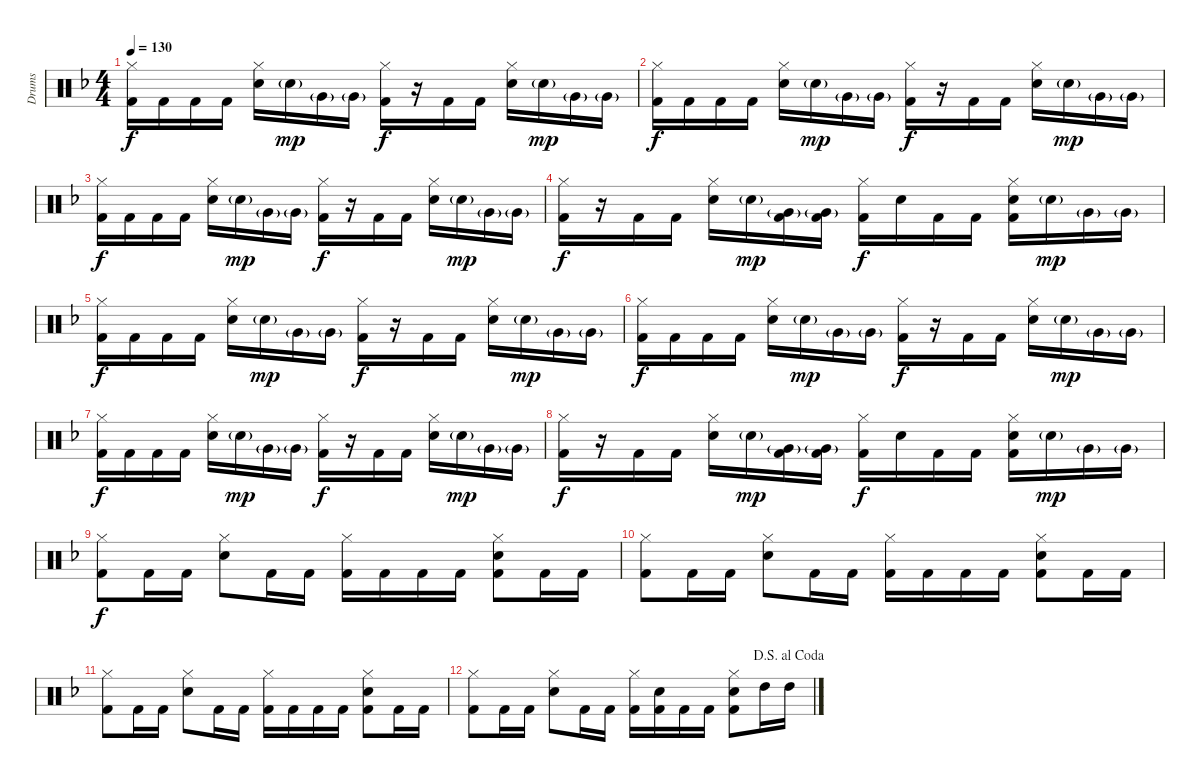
\track ("Drums" "Drums") {instrument percussion}
\staff {score}
\articulation defaults
\ts (4 4)
\tempo 130
\clef neutral
\ks f
("Hi-Hat (closed)" "Kick (hit) 2").16{dy f} "Kick (hit) 2".16 "Kick (hit) 2".16 "Kick (hit) 2".16 ("Hi-Hat (closed)" "Electric Snare (hit)").16 "Snare (hit) 2"{g}.16{dy mp} "Very Low Tom (hit)"{g}.16 "Very Low Tom (hit)"{g}.16 ("Hi-Hat (closed)" "Kick (hit) 2").16{dy f} r.16 "Kick (hit) 2".16 "Kick (hit) 2".16 ("Hi-Hat (closed)" "Electric Snare (hit)").16 "Snare (hit) 2"{g}.16{dy mp} "Very Low Tom (hit)"{g}.16 "Very Low Tom (hit)"{g}.16 |
("Hi-Hat (closed)" "Kick (hit) 2").16{dy f} "Kick (hit) 2".16 "Kick (hit) 2".16 "Kick (hit) 2".16 ("Hi-Hat (closed)" "Electric Snare (hit)").16 "Snare (hit) 2"{g}.16{dy mp} "Very Low Tom (hit)"{g}.16 "Very Low Tom (hit)"{g}.16 ("Hi-Hat (closed)" "Kick (hit) 2").16{dy f} r.16 "Kick (hit) 2".16 "Kick (hit) 2".16 ("Hi-Hat (closed)" "Electric Snare (hit)").16 "Snare (hit) 2"{g}.16{dy mp} "Very Low Tom (hit)"{g}.16 "Very Low Tom (hit)"{g}.16 |
("Hi-Hat (closed)" "Kick (hit) 2").16{dy f} "Kick (hit) 2".16 "Kick (hit) 2".16 "Kick (hit) 2".16 ("Hi-Hat (closed)" "Electric Snare (hit)").16 "Snare (hit) 2"{g}.16{dy mp} "Very Low Tom (hit)"{g}.16 "Very Low Tom (hit)"{g}.16 ("Hi-Hat (closed)" "Kick (hit) 2").16{dy f} r.16 "Kick (hit) 2".16 "Kick (hit) 2".16 ("Hi-Hat (closed)" "Electric Snare (hit)").16 "Snare (hit) 2"{g}.16{dy mp} "Very Low Tom (hit)"{g}.16 "Very Low Tom (hit)"{g}.16 |
("Hi-Hat (closed)" "Kick (hit) 2").16{dy f} r.16 "Kick (hit) 2".16 "Kick (hit) 2".16 ("Hi-Hat (closed)" "Electric Snare (hit)").16 "Snare (hit) 2"{g}.16{dy mp} ("Very Low Tom (hit)"{g} "Kick (hit) 2").16 ("Very Low Tom (hit)"{g} "Kick (hit) 2").16 ("Hi-Hat (closed)" "Kick (hit) 2").16{dy f} "Electric Snare (hit)".16 "Kick (hit) 2".16 "Kick (hit) 2".16 ("Hi-Hat (closed)" "Electric Snare (hit)" "Kick (hit) 2").16 "Snare (hit) 2"{g}.16{dy mp} "Very Low Tom (hit)"{g}.16 "Very Low Tom (hit)"{g}.16 |
("Hi-Hat (closed)" "Kick (hit) 2").16{dy f} "Kick (hit) 2".16 "Kick (hit) 2".16 "Kick (hit) 2".16 ("Hi-Hat (closed)" "Electric Snare (hit)").16 "Snare (hit) 2"{g}.16{dy mp} "Very Low Tom (hit)"{g}.16 "Very Low Tom (hit)"{g}.16 ("Hi-Hat (closed)" "Kick (hit) 2").16{dy f} r.16 "Kick (hit) 2".16 "Kick (hit) 2".16 ("Hi-Hat (closed)" "Electric Snare (hit)").16 "Snare (hit) 2"{g}.16{dy mp} "Very Low Tom (hit)"{g}.16 "Very Low Tom (hit)"{g}.16 |
("Hi-Hat (closed)" "Kick (hit) 2").16{dy f} "Kick (hit) 2".16 "Kick (hit) 2".16 "Kick (hit) 2".16 ("Hi-Hat (closed)" "Electric Snare (hit)").16 "Snare (hit) 2"{g}.16{dy mp} "Very Low Tom (hit)"{g}.16 "Very Low Tom (hit)"{g}.16 ("Hi-Hat (closed)" "Kick (hit) 2").16{dy f} r.16 "Kick (hit) 2".16 "Kick (hit) 2".16 ("Hi-Hat (closed)" "Electric Snare (hit)").16 "Snare (hit) 2"{g}.16{dy mp} "Very Low Tom (hit)"{g}.16 "Very Low Tom (hit)"{g}.16 |
("Hi-Hat (closed)" "Kick (hit) 2").16{dy f} "Kick (hit) 2".16 "Kick (hit) 2".16 "Kick (hit) 2".16 ("Hi-Hat (closed)" "Electric Snare (hit)").16 "Snare (hit) 2"{g}.16{dy mp} "Very Low Tom (hit)"{g}.16 "Very Low Tom (hit)"{g}.16 ("Hi-Hat (closed)" "Kick (hit) 2").16{dy f} r.16 "Kick (hit) 2".16 "Kick (hit) 2".16 ("Hi-Hat (closed)" "Electric Snare (hit)").16 "Snare (hit) 2"{g}.16{dy mp} "Very Low Tom (hit)"{g}.16 "Very Low Tom (hit)"{g}.16 |
("Hi-Hat (closed)" "Kick (hit) 2").16{dy f} r.16 "Kick (hit) 2".16 "Kick (hit) 2".16 ("Hi-Hat (closed)" "Electric Snare (hit)").16 "Snare (hit) 2"{g}.16{dy mp} ("Very Low Tom (hit)"{g} "Kick (hit) 2").16 ("Very Low Tom (hit)"{g} "Kick (hit) 2").16 ("Hi-Hat (closed)" "Kick (hit) 2").16{dy f} "Electric Snare (hit)".16 "Kick (hit) 2".16 "Kick (hit) 2".16 ("Hi-Hat (closed)" "Electric Snare (hit)" "Kick (hit) 2").16 "Snare (hit) 2"{g}.16{dy mp} "Very Low Tom (hit)"{g}.16 "Very Low Tom (hit)"{g}.16 |
("Hi-Hat (closed)" "Kick (hit) 2").8{dy f} "Kick (hit) 2".16 "Kick (hit) 2".16 ("Hi-Hat (closed)" "Electric Snare (hit)").8 "Kick (hit) 2".16 "Kick (hit) 2".16 ("Hi-Hat (closed)" "Kick (hit) 2").16 "Kick (hit) 2".16 "Kick (hit) 2".16 "Kick (hit) 2".16 ("Hi-Hat (closed)" "Electric Snare (hit)" "Kick (hit) 2").8 "Kick (hit) 2".16 "Kick (hit) 2".16 |
("Hi-Hat (closed)" "Kick (hit) 2").8 "Kick (hit) 2".16 "Kick (hit) 2".16 ("Hi-Hat (closed)" "Electric Snare (hit)").8 "Kick (hit) 2".16 "Kick (hit) 2".16 ("Hi-Hat (closed)" "Kick (hit) 2").16 "Kick (hit) 2".16 "Kick (hit) 2".16 "Kick (hit) 2".16 ("Hi-Hat (closed)" "Electric Snare (hit)" "Kick (hit) 2").8 "Kick (hit) 2".16 "Kick (hit) 2".16 |
("Hi-Hat (closed)" "Kick (hit) 2").8 "Kick (hit) 2".16 "Kick (hit) 2".16 ("Hi-Hat (closed)" "Electric Snare (hit)").8 "Kick (hit) 2".16 "Kick (hit) 2".16 ("Hi-Hat (closed)" "Kick (hit) 2").16 "Kick (hit) 2".16 "Kick (hit) 2".16 "Kick (hit) 2".16 ("Hi-Hat (closed)" "Electric Snare (hit)" "Kick (hit) 2").8 "Kick (hit) 2".16 "Kick (hit) 2".16 |
\jump dalsegnoalcoda
("Hi-Hat (closed)" "Kick (hit) 2").8 "Kick (hit) 2".16 "Kick (hit) 2".16 ("Hi-Hat (closed)" "Electric Snare (hit)").8 "Kick (hit) 2".16 "Kick (hit) 2".16 ("Hi-Hat (closed)" "Kick (hit) 2").16 ("Electric Snare (hit)" "Kick (hit) 2").16 "Kick (hit) 2".16 "Kick (hit) 2".16 ("Hi-Hat (closed)" "Electric Snare (hit)" "Kick (hit) 2").8 "High Tom (hit)".16 "High Tom (hit)".16
